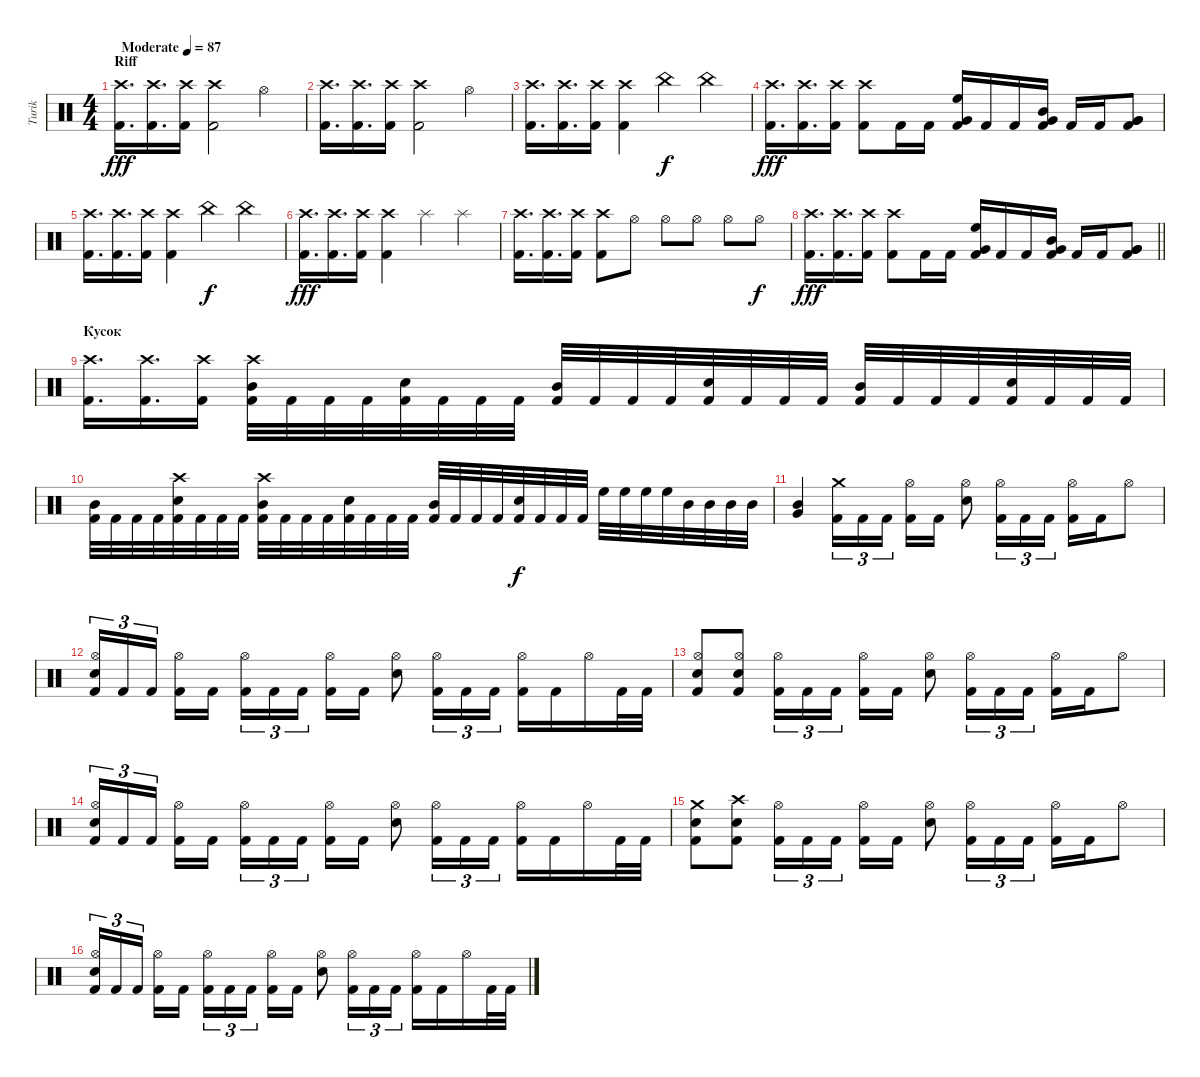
\track ("Turik" "Turik") {instrument percussion}
\staff {score}
\articulation defaults
\ts (4 4)
\section ("" "Riff")
\tempo (87 "Moderate")
\clef neutral
\ks c
("Crash high (hit)" "Kick (hit) 2").16{d dy fff} ("Crash high (hit)" "Kick (hit) 2").16{d} ("Crash high (hit)" "Kick (hit) 2").16 ("Crash high (hit)" "Kick (hit) 2").2 "Hi-Hat (open)".4 |
("Crash high (hit)" "Kick (hit) 2").16{d} ("Crash high (hit)" "Kick (hit) 2").16{d} ("Crash high (hit)" "Kick (hit) 2").16 ("Crash high (hit)" "Kick (hit) 2").2 "Hi-Hat (open)".4 |
("Crash high (hit)" "Kick (hit) 2").16{d} ("Crash high (hit)" "Kick (hit) 2").16{d} ("Crash high (hit)" "Kick (hit) 2").16 ("Crash high (hit)" "Kick (hit) 2").4 "China (hit)".4{dy f} "China (hit)".4 |
("Crash high (hit)" "Kick (hit) 2").16{d dy fff} ("Crash high (hit)" "Kick (hit) 2").16{d} ("Crash high (hit)" "Kick (hit) 2").16 ("Crash high (hit)" "Kick (hit) 2").8 "Kick (hit) 2".16 "Kick (hit) 2".16 ("High Floor Tom (hit)" "Very Low Tom (hit)" "Kick (hit) 2").16 "Kick (hit) 2".16 "Kick (hit) 2".16 ("Mid Tom (hit)" "Very Low Tom (hit)" "Kick (hit) 2").16 "Kick (hit) 2".16 "Kick (hit) 2".16 ("Very Low Tom (hit)" "Very Low Tom (hit)" "Kick (hit) 2").8 |
("Crash high (hit)" "Kick (hit) 2").16{d} ("Crash high (hit)" "Kick (hit) 2").16{d} ("Crash high (hit)" "Kick (hit) 2").16 ("Crash high (hit)" "Kick (hit) 2").4 "China (hit)".4{dy f} "China (hit)".4 |
("Crash high (hit)" "Kick (hit) 2").16{d dy fff} ("Crash high (hit)" "Kick (hit) 2").16{d} ("Crash high (hit)" "Kick (hit) 2").16 ("Crash high (hit)" "Kick (hit) 2").4 "Splash (hit)".4 "Splash (hit)".4 |
("Crash high (hit)" "Kick (hit) 2").16{d} ("Crash high (hit)" "Kick (hit) 2").16{d} ("Crash high (hit)" "Kick (hit) 2").16 ("Crash high (hit)" "Kick (hit) 2").8 "Hi-Hat (open)".8 "Hi-Hat (open)".8 "Hi-Hat (open)".8 "Hi-Hat (open)".8 "Hi-Hat (open)".8{dy f} |
\barLineRight lightlight
("Crash high (hit)" "Kick (hit) 2").16{d dy fff} ("Crash high (hit)" "Kick (hit) 2").16{d} ("Crash high (hit)" "Kick (hit) 2").16 ("Crash high (hit)" "Kick (hit) 2").8 "Kick (hit) 2".16 "Kick (hit) 2".16 ("High Floor Tom (hit)" "Very Low Tom (hit)" "Kick (hit) 2").16 "Kick (hit) 2".16 "Kick (hit) 2".16 ("Mid Tom (hit)" "Very Low Tom (hit)" "Kick (hit) 2").16 "Kick (hit) 2".16 "Kick (hit) 2".16 ("Very Low Tom (hit)" "Very Low Tom (hit)" "Kick (hit) 2").8 |
\section ("" "Кусок")
("Crash high (hit)" "Kick (hit) 2").16{d} ("Crash high (hit)" "Kick (hit) 2").16{d} ("Crash high (hit)" "Kick (hit) 2").16 ("Crash high (hit)" "Mid Tom (hit)" "Kick (hit) 2").32 "Kick (hit) 2".32 "Kick (hit) 2".32 "Kick (hit) 2".32 ("Snare (hit) 2" "Kick (hit) 2").32 "Kick (hit) 2".32 "Kick (hit) 2".32 "Kick (hit) 2".32 ("Mid Tom (hit)" "Kick (hit) 2").32 "Kick (hit) 2".32 "Kick (hit) 2".32 "Kick (hit) 2".32 ("Snare (hit) 2" "Kick (hit) 2").32 "Kick (hit) 2".32 "Kick (hit) 2".32 "Kick (hit) 2".32 ("Mid Tom (hit)" "Kick (hit) 2").32 "Kick (hit) 2".32 "Kick (hit) 2".32 "Kick (hit) 2".32 ("Snare (hit) 2" "Kick (hit) 2").32 "Kick (hit) 2".32 "Kick (hit) 2".32 "Kick (hit) 2".32 |
("Mid Tom (hit)" "Kick (hit) 2").32 "Kick (hit) 2".32 "Kick (hit) 2".32 "Kick (hit) 2".32 ("Crash high (hit)" "Snare (hit) 2" "Kick (hit) 2").32 "Kick (hit) 2".32 "Kick (hit) 2".32 "Kick (hit) 2".32 ("Crash high (hit)" "Mid Tom (hit)" "Kick (hit) 2").32 "Kick (hit) 2".32 "Kick (hit) 2".32 "Kick (hit) 2".32 ("Snare (hit) 2" "Kick (hit) 2").32 "Kick (hit) 2".32 "Kick (hit) 2".32 "Kick (hit) 2".32 ("Mid Tom (hit)" "Kick (hit) 2").32 "Kick (hit) 2".32 "Kick (hit) 2".32 "Kick (hit) 2".32 ("Snare (hit) 2" "Kick (hit) 2").32{dy f} "Kick (hit) 2".32 "Kick (hit) 2".32 "Kick (hit) 2".32 "High Floor Tom (hit)".32 "High Floor Tom (hit)".32 "High Floor Tom (hit)".32 "High Floor Tom (hit)".32 "Mid Tom (hit)".32 "Mid Tom (hit)".32 "Mid Tom (hit)".32 "Mid Tom (hit)".32 |
("Mid Tom (hit)" "Very Low Tom (hit)").4 ("Crash medium (hit)" "Kick (hit) 2").16{tu (3 2)} "Kick (hit) 2".16{tu (3 2)} "Kick (hit) 2".16{tu (3 2) beam splitsecondary} ("Hi-Hat (open)" "Kick (hit) 2").16 "Kick (hit) 2".16 ("Hi-Hat (open)" "Snare (hit) 2").8 ("Hi-Hat (open)" "Kick (hit) 2").16{tu (3 2)} "Kick (hit) 2".16{tu (3 2)} "Kick (hit) 2".16{tu (3 2)} ("Hi-Hat (open)" "Kick (hit) 2").16 "Kick (hit) 2".16 "Hi-Hat (open)".8 |
("Hi-Hat (open)" "Snare (hit) 2" "Kick (hit) 2").16{tu (3 2)} "Kick (hit) 2".16{tu (3 2)} "Kick (hit) 2".16{tu (3 2) beam splitsecondary} ("Hi-Hat (open)" "Kick (hit) 2").16 "Kick (hit) 2".16 ("Hi-Hat (open)" "Kick (hit) 2").16{tu (3 2)} "Kick (hit) 2".16{tu (3 2)} "Kick (hit) 2".16{tu (3 2) beam splitsecondary} ("Hi-Hat (open)" "Kick (hit) 2").16 "Kick (hit) 2".16 ("Hi-Hat (open)" "Snare (hit) 2").8 ("Hi-Hat (open)" "Kick (hit) 2").16{tu (3 2)} "Kick (hit) 2".16{tu (3 2)} "Kick (hit) 2".16{tu (3 2)} ("Hi-Hat (open)" "Kick (hit) 2").16 "Kick (hit) 2".16 "Hi-Hat (open)".16 "Kick (hit) 2".32 "Kick (hit) 2".32 |
("Hi-Hat (open)" "Snare (hit) 2" "Kick (hit) 2").8 ("Hi-Hat (open)" "Snare (hit) 2" "Kick (hit) 2").8 ("Hi-Hat (open)" "Kick (hit) 2").16{tu (3 2)} "Kick (hit) 2".16{tu (3 2)} "Kick (hit) 2".16{tu (3 2) beam splitsecondary} ("Hi-Hat (open)" "Kick (hit) 2").16 "Kick (hit) 2".16 ("Hi-Hat (open)" "Snare (hit) 2").8 ("Hi-Hat (open)" "Kick (hit) 2").16{tu (3 2)} "Kick (hit) 2".16{tu (3 2)} "Kick (hit) 2".16{tu (3 2)} ("Hi-Hat (open)" "Kick (hit) 2").16 "Kick (hit) 2".16 "Hi-Hat (open)".8 |
("Hi-Hat (open)" "Snare (hit) 2" "Kick (hit) 2").16{tu (3 2)} "Kick (hit) 2".16{tu (3 2)} "Kick (hit) 2".16{tu (3 2) beam splitsecondary} ("Hi-Hat (open)" "Kick (hit) 2").16 "Kick (hit) 2".16 ("Hi-Hat (open)" "Kick (hit) 2").16{tu (3 2)} "Kick (hit) 2".16{tu (3 2)} "Kick (hit) 2".16{tu (3 2) beam splitsecondary} ("Hi-Hat (open)" "Kick (hit) 2").16 "Kick (hit) 2".16 ("Hi-Hat (open)" "Snare (hit) 2").8 ("Hi-Hat (open)" "Kick (hit) 2").16{tu (3 2)} "Kick (hit) 2".16{tu (3 2)} "Kick (hit) 2".16{tu (3 2)} ("Hi-Hat (open)" "Kick (hit) 2").16 "Kick (hit) 2".16 "Hi-Hat (open)".16 "Kick (hit) 2".32 "Kick (hit) 2".32 |
("Crash medium (hit)" "Snare (hit) 2" "Kick (hit) 2").8 ("Crash high (hit)" "Snare (hit) 2" "Kick (hit) 2").8 ("Hi-Hat (open)" "Kick (hit) 2").16{tu (3 2)} "Kick (hit) 2".16{tu (3 2)} "Kick (hit) 2".16{tu (3 2) beam splitsecondary} ("Hi-Hat (open)" "Kick (hit) 2").16 "Kick (hit) 2".16 ("Hi-Hat (open)" "Snare (hit) 2").8 ("Hi-Hat (open)" "Kick (hit) 2").16{tu (3 2)} "Kick (hit) 2".16{tu (3 2)} "Kick (hit) 2".16{tu (3 2)} ("Hi-Hat (open)" "Kick (hit) 2").16 "Kick (hit) 2".16 "Hi-Hat (open)".8 |
("Hi-Hat (open)" "Snare (hit) 2" "Kick (hit) 2").16{tu (3 2)} "Kick (hit) 2".16{tu (3 2)} "Kick (hit) 2".16{tu (3 2) beam splitsecondary} ("Hi-Hat (open)" "Kick (hit) 2").16 "Kick (hit) 2".16 ("Hi-Hat (open)" "Kick (hit) 2").16{tu (3 2)} "Kick (hit) 2".16{tu (3 2)} "Kick (hit) 2".16{tu (3 2) beam splitsecondary} ("Hi-Hat (open)" "Kick (hit) 2").16 "Kick (hit) 2".16 ("Hi-Hat (open)" "Snare (hit) 2").8 ("Hi-Hat (open)" "Kick (hit) 2").16{tu (3 2)} "Kick (hit) 2".16{tu (3 2)} "Kick (hit) 2".16{tu (3 2)} ("Hi-Hat (open)" "Kick (hit) 2").16 "Kick (hit) 2".16 "Hi-Hat (open)".16 "Kick (hit) 2".32 "Kick (hit) 2".32
